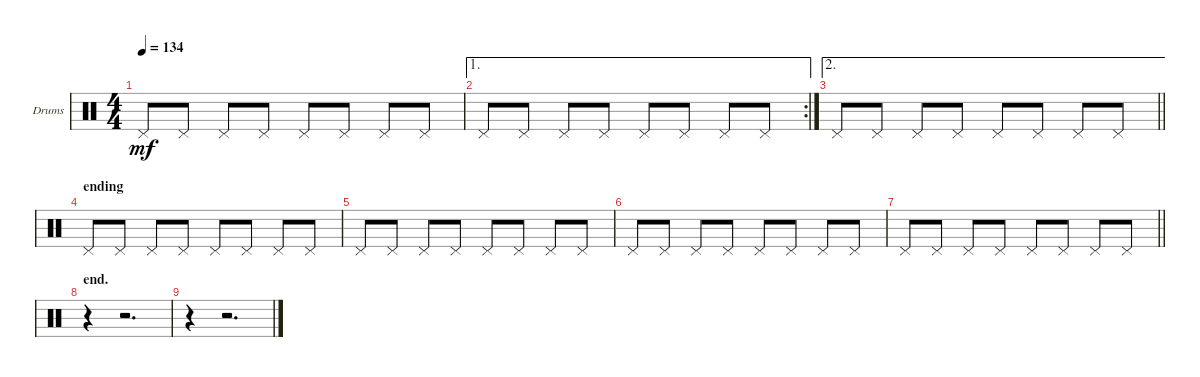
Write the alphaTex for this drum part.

\bracketExtendMode groupsimilarinstruments
\firstSystemTrackNameOrientation horizontal
\otherSystemsTrackNameOrientation horizontal
\track ("Drumkit" "Drums") {instrument percussion}
\staff {score}
\articulation defaults
\ts (4 4)
\tempo 134
\clef neutral
\ks c "Pedal Hi-Hat (hit)".8{dy mf} "Pedal Hi-Hat (hit)".8 "Pedal Hi-Hat (hit)".8 "Pedal Hi-Hat (hit)".8 "Pedal Hi-Hat (hit)".8 "Pedal Hi-Hat (hit)".8 "Pedal Hi-Hat (hit)".8 "Pedal Hi-Hat (hit)".8
|
\ae 1
\rc 2 "Pedal Hi-Hat (hit)".8 "Pedal Hi-Hat (hit)".8 "Pedal Hi-Hat (hit)".8 "Pedal Hi-Hat (hit)".8 "Pedal Hi-Hat (hit)".8 "Pedal Hi-Hat (hit)".8 "Pedal Hi-Hat (hit)".8 "Pedal Hi-Hat (hit)".8
|
\ae 2
\barLineRight lightlight "Pedal Hi-Hat (hit)".8 "Pedal Hi-Hat (hit)".8 "Pedal Hi-Hat (hit)".8 "Pedal Hi-Hat (hit)".8 "Pedal Hi-Hat (hit)".8 "Pedal Hi-Hat (hit)".8 "Pedal Hi-Hat (hit)".8 "Pedal Hi-Hat (hit)".8
|
\section ("" "ending")
"Pedal Hi-Hat (hit)".8 "Pedal Hi-Hat (hit)".8 "Pedal Hi-Hat (hit)".8 "Pedal Hi-Hat (hit)".8 "Pedal Hi-Hat (hit)".8 "Pedal Hi-Hat (hit)".8 "Pedal Hi-Hat (hit)".8 "Pedal Hi-Hat (hit)".8 |
"Pedal Hi-Hat (hit)".8 "Pedal Hi-Hat (hit)".8 "Pedal Hi-Hat (hit)".8 "Pedal Hi-Hat (hit)".8 "Pedal Hi-Hat (hit)".8 "Pedal Hi-Hat (hit)".8 "Pedal Hi-Hat (hit)".8 "Pedal Hi-Hat (hit)".8 |
"Pedal Hi-Hat (hit)".8 "Pedal Hi-Hat (hit)".8 "Pedal Hi-Hat (hit)".8 "Pedal Hi-Hat (hit)".8 "Pedal Hi-Hat (hit)".8 "Pedal Hi-Hat (hit)".8 "Pedal Hi-Hat (hit)".8 "Pedal Hi-Hat (hit)".8 |
\barLineRight lightlight "Pedal Hi-Hat (hit)".8 "Pedal Hi-Hat (hit)".8 "Pedal Hi-Hat (hit)".8 "Pedal Hi-Hat (hit)".8 "Pedal Hi-Hat (hit)".8 "Pedal Hi-Hat (hit)".8 "Pedal Hi-Hat (hit)".8 "Pedal Hi-Hat (hit)".8
|
\section ("" "end.")
r.4 r.2{d} |
r.4 r.2{d}
